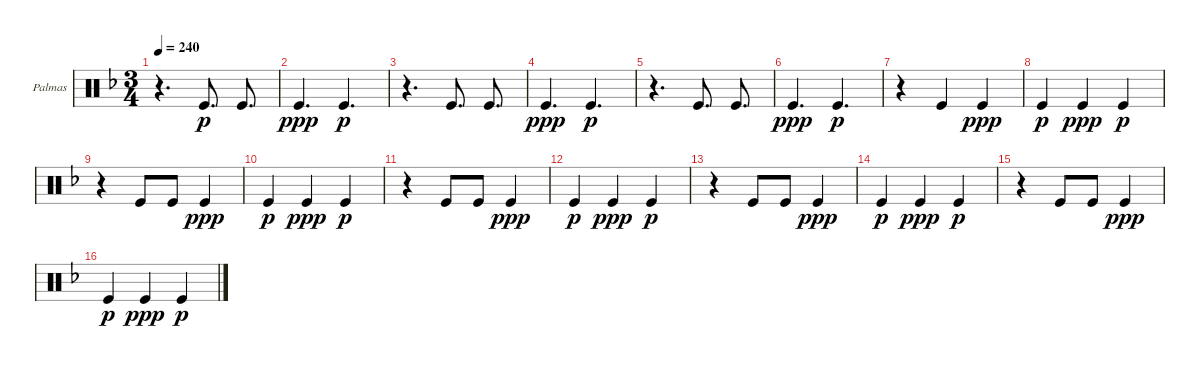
\defaultSystemsLayout 4
\bracketExtendMode groupsimilarinstruments
\firstSystemTrackNameOrientation horizontal
\otherSystemsTrackNameOrientation horizontal
\track ("Palmas" "Palmas") {instrument percussion}
\staff {score}
\articulation defaults
\ts (3 4)
\tempo 240
\clef neutral
\ks f
r.4{d dy p} "Kick (hit)".8{d} "Kick (hit)".8{d} |
"Kick (hit)".4{d dy ppp} "Kick (hit)".4{d dy p} |
r.4{d} "Kick (hit)".8{d} "Kick (hit)".8{d} |
"Kick (hit)".4{d dy ppp} "Kick (hit)".4{d dy p} |
r.4{d} "Kick (hit)".8{d} "Kick (hit)".8{d} |
"Kick (hit)".4{d dy ppp} "Kick (hit)".4{d dy p} |
r.4 "Kick (hit)".4 "Kick (hit)".4{dy ppp} |
"Kick (hit)".4{dy p} "Kick (hit)".4{dy ppp} "Kick (hit)".4{dy p} |
r.4 "Kick (hit)".8 "Kick (hit)".8 "Kick (hit)".4{dy ppp} |
"Kick (hit)".4{dy p} "Kick (hit)".4{dy ppp} "Kick (hit)".4{dy p} |
r.4 "Kick (hit)".8 "Kick (hit)".8 "Kick (hit)".4{dy ppp} |
"Kick (hit)".4{dy p} "Kick (hit)".4{dy ppp} "Kick (hit)".4{dy p} |
r.4 "Kick (hit)".8 "Kick (hit)".8 "Kick (hit)".4{dy ppp} |
"Kick (hit)".4{dy p} "Kick (hit)".4{dy ppp} "Kick (hit)".4{dy p} |
r.4 "Kick (hit)".8 "Kick (hit)".8 "Kick (hit)".4{dy ppp} |
"Kick (hit)".4{dy p} "Kick (hit)".4{dy ppp} "Kick (hit)".4{dy p}
